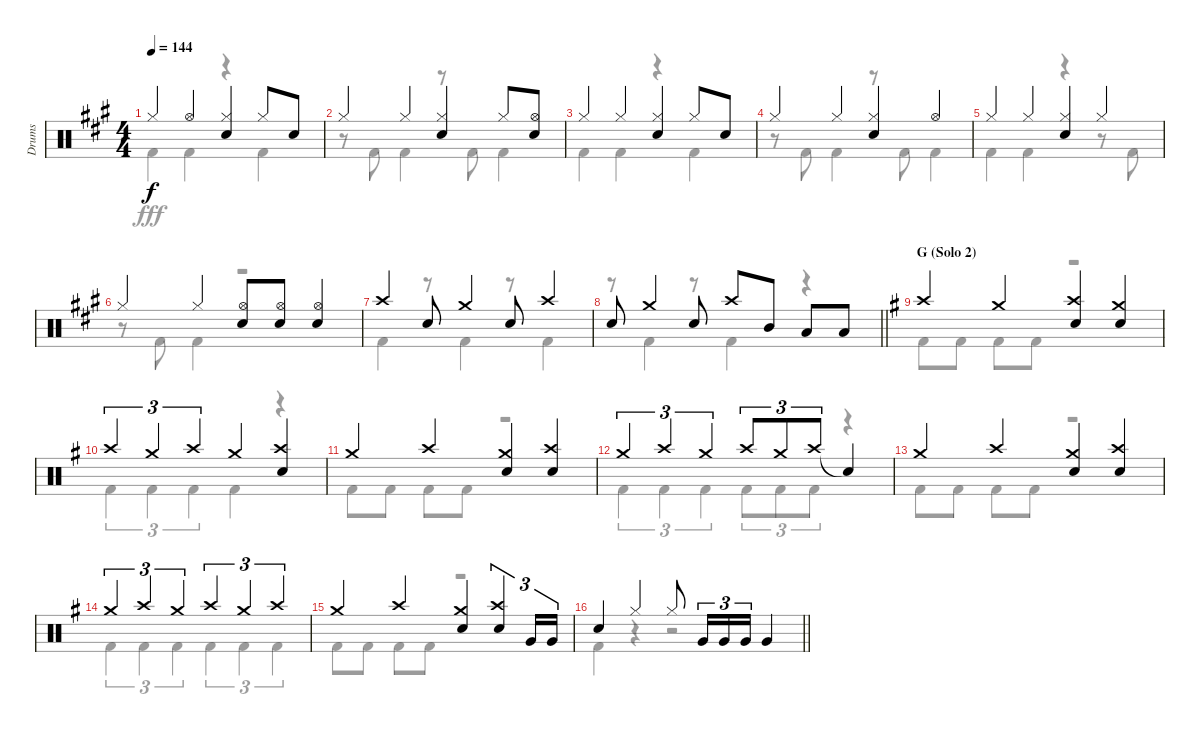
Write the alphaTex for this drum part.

\track ("Drums" "Drums") {instrument percussion}
\staff {score}
\articulation defaults
\voice
\ts (4 4)
\tempo 144
\clef neutral
\ks a "Hi-Hat (closed)".4{dy f} "Hi-Hat (open)".4
("Hi-Hat (closed)" "Snare (hit) 2").4 "Hi-Hat (closed)".8 "Snare (hit) 2".8 |
"Hi-Hat (closed)".4 "Hi-Hat (closed)".4 ("Hi-Hat (closed)" "Snare (hit) 2").4 "Hi-Hat (closed)".8 ("Hi-Hat (open)" "Snare (hit) 2").8 |
"Hi-Hat (closed)".4 "Hi-Hat (closed)".4 ("Hi-Hat (closed)" "Snare (hit) 2").4 "Hi-Hat (closed)".8 "Snare (hit) 2".8 |
"Hi-Hat (closed)".4 "Hi-Hat (closed)".4 ("Hi-Hat (closed)" "Snare (hit) 2").4 "Hi-Hat (open)".4 |
"Hi-Hat (closed)".4 "Hi-Hat (closed)".4 ("Hi-Hat (closed)" "Snare (hit) 2").4 "Hi-Hat (closed)".4 |
"Hi-Hat (closed)".4 "Hi-Hat (closed)".4 ("Hi-Hat (open)" "Snare (hit) 2").8 ("Hi-Hat (open)" "Snare (hit) 2").8 ("Hi-Hat (open)" "Snare (hit) 2").4 |
"Crash high (hit)".4 "Snare (hit) 2".8 "Crash medium (hit)".4 "Snare (hit) 2".8 "Crash high (hit)".4 |
\barLineRight lightlight "Snare (hit) 2".8 "Crash medium (hit)".4 "Snare (hit) 2".8 "Crash high (hit)".8 "Mid Tom (hit)".8 "Low Tom (hit)".8 "Low Tom (hit)".8
|
\section ("" "G (Solo 2)")
\ks g "Crash high (hit)".4 "Crash medium (hit)".4
("Crash high (hit)" "Snare (hit) 2").4 ("Crash medium (hit)" "Snare (hit) 2").4 |
"Crash high (hit)".4{tu (3 2)} "Crash medium (hit)".4{tu (3 2)} "Crash high (hit)".4{tu (3 2)} "Crash medium (hit)".4 ("Crash high (hit)" "Snare (hit) 2").4 |
"Crash medium (hit)".4 "Crash high (hit)".4 ("Crash medium (hit)" "Snare (hit) 2").4 ("Crash high (hit)" "Snare (hit) 2").4 |
"Crash medium (hit)".4{tu (3 2)} "Crash high (hit)".4{tu (3 2)} "Crash medium (hit)".4{tu (3 2)} "Crash high (hit)".8{tu (3 2)} "Crash medium (hit)".8{tu (3 2)} "Crash high (hit)".8{tu (3 2)} "Snare (hit)"{t}.4 |
"Crash medium (hit)".4 "Crash high (hit)".4 ("Crash medium (hit)" "Snare (hit) 2").4 ("Crash high (hit)" "Snare (hit) 2").4 |
"Crash medium (hit)".4{tu (3 2)} "Crash high (hit)".4{tu (3 2)} "Crash medium (hit)".4{tu (3 2)} "Crash high (hit)".4{tu (3 2)} "Crash medium (hit)".4{tu (3 2)} "Crash high (hit)".4{tu (3 2)} |
"Crash medium (hit)".4 "Crash high (hit)".4 ("Crash medium (hit)" "Snare (hit) 2").4 ("Crash high (hit)" "Snare (hit) 2").4{tu (3 2)} "Very Low Tom (hit)".16{tu (3 2)} "Very Low Tom (hit)".16{tu (3 2)} |
\barLineRight lightlight "Snare (hit) 2".4 "Hi-Hat (closed)".4 "Hi-Hat (closed)".8 "Very Low Tom (hit)".16{tu (3 2)} "Very Low Tom (hit)".16{tu (3 2)} "Very Low Tom (hit)".16{tu (3 2)} "Very Low Tom (hit)".4
\voice
\clef neutral
\ottava regular
\simile none
\ks a "Kick (hit) 2".4{dy fff} "Kick (hit) 2".4
r.4 "Kick (hit) 2".4 |
r.8 "Kick (hit) 2".8 "Kick (hit) 2".4 r.8 "Kick (hit) 2".8 "Kick (hit) 2".4 |
"Kick (hit) 2".4 "Kick (hit) 2".4 r.4 "Kick (hit) 2".4 |
r.8 "Kick (hit) 2".8 "Kick (hit) 2".4 r.8 "Kick (hit) 2".8 "Kick (hit) 2".4 |
"Kick (hit) 2".4 "Kick (hit) 2".4 r.4 r.8 "Kick (hit) 2".8 |
r.8 "Kick (hit) 2".8 "Kick (hit) 2".4 r.2 |
"Kick (hit) 2".4 r.8 "Kick (hit) 2".4 r.8 "Kick (hit) 2".4 |
\barLineRight lightlight
r.8 "Kick (hit) 2".4 r.8 "Kick (hit) 2".4 r.4 |
\ks g "Kick (hit) 2".8 "Kick (hit) 2".8 "Kick (hit) 2".8 "Kick (hit) 2".8
r.2 |
"Kick (hit) 2".4{tu (3 2)} "Kick (hit) 2".4{tu (3 2)} "Kick (hit) 2".4{tu (3 2)} "Kick (hit) 2".4 r.4 |
"Kick (hit) 2".8 "Kick (hit) 2".8 "Kick (hit) 2".8 "Kick (hit) 2".8 r.2 |
"Kick (hit) 2".4{tu (3 2)} "Kick (hit) 2".4{tu (3 2)} "Kick (hit) 2".4{tu (3 2)} "Kick (hit) 2".8{tu (3 2)} "Kick (hit) 2".8{tu (3 2)} "Kick (hit) 2".8{tu (3 2)} r.4 |
"Kick (hit) 2".8 "Kick (hit) 2".8 "Kick (hit) 2".8 "Kick (hit) 2".8 r.2 |
"Kick (hit) 2".4{tu (3 2)} "Kick (hit) 2".4{tu (3 2)} "Kick (hit) 2".4{tu (3 2)} "Kick (hit) 2".4{tu (3 2)} "Kick (hit) 2".4{tu (3 2)} "Kick (hit) 2".4{tu (3 2)} |
"Kick (hit) 2".8 "Kick (hit) 2".8 "Kick (hit) 2".8 "Kick (hit) 2".8 r.2 |
\barLineRight lightlight "Kick (hit) 2".4
r.4 r.2
